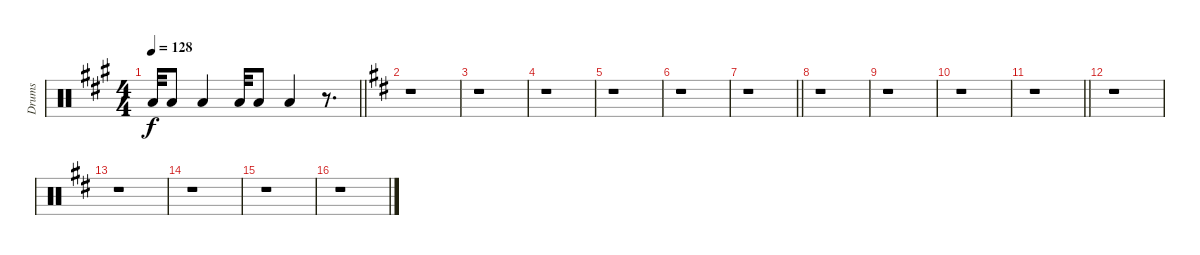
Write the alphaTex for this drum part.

\track ("Drums" "Drums") {instrument percussion}
\staff {score}
\articulation defaults
\ts (4 4)
\tempo 128
\clef neutral
\barLineRight lightlight
\ks a "Low Tom (hit)".32{dy f} "Low Tom (hit)".8 "Low Tom (hit)".4 "Low Floor Tom (hit)".32 "Low Floor Tom (hit)".8 "Low Floor Tom (hit)".4
r.8{d} |
\ks d
r.1 |
r.1 |
r.1 |
r.1 |
r.1 |
\barLineRight lightlight
r.1 |
r.1 |
r.1 |
r.1 |
\barLineRight lightlight
r.1 |
r.1 |
r.1 |
r.1 |
r.1 |
r.1
